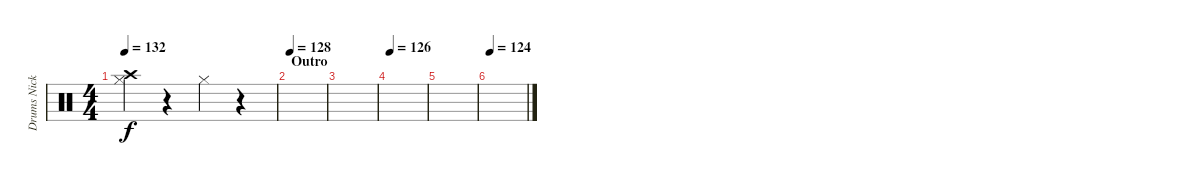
\track ("Drums Nicko McBrain" "Drums Nick") {instrument percussion}
\staff {score}
\articulation defaults
\ts (4 4)
\tempo 132
\clef neutral
\ks c
("Hi-Hat (closed)" "Crash high (hit)").4{dy f} r.4 "Hi-Hat (closed)".4 r.4 |
\section ("" "Outro")
\tempo 128
|
|
\tempo 126
|
|
\tempo 124
